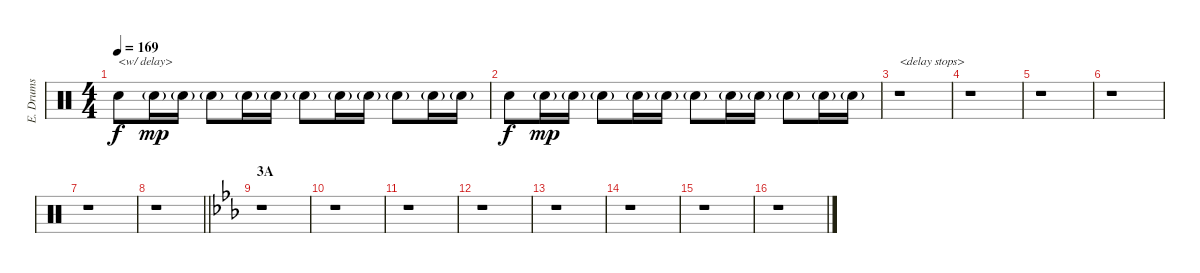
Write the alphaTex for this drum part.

\track ("E. Drums" "E. Drums") {instrument percussion}
\staff {score}
\articulation defaults
\ts (4 4)
\tempo 169
\clef neutral
\ks c "Electric Snare (hit)".8{txt "<w/ delay>" dy f} "Electric Snare (hit)"{g}.16{dy mp} "Electric Snare (hit)"{g}.16 "Electric Snare (hit)"{g}.8 "Electric Snare (hit)"{g}.16 "Electric Snare (hit)"{g}.16 "Electric Snare (hit)"{g}.8 "Electric Snare (hit)"{g}.16 "Electric Snare (hit)"{g}.16 "Electric Snare (hit)"{g}.8 "Electric Snare (hit)"{g}.16 "Electric Snare (hit)"{g}.16
|
"Electric Snare (hit)".8{dy f} "Electric Snare (hit)"{g}.16{dy mp} "Electric Snare (hit)"{g}.16 "Electric Snare (hit)"{g}.8 "Electric Snare (hit)"{g}.16 "Electric Snare (hit)"{g}.16 "Electric Snare (hit)"{g}.8 "Electric Snare (hit)"{g}.16 "Electric Snare (hit)"{g}.16 "Electric Snare (hit)"{g}.8 "Electric Snare (hit)"{g}.16 "Electric Snare (hit)"{g}.16 |
r.1{txt "<delay stops>"} |
r.1 |
r.1 |
r.1 |
r.1 |
\barLineRight lightlight
r.1 |
\section ("" "3A")
\ks eb
r.1 |
r.1 |
r.1 |
r.1 |
r.1 |
r.1 |
r.1 |
r.1
